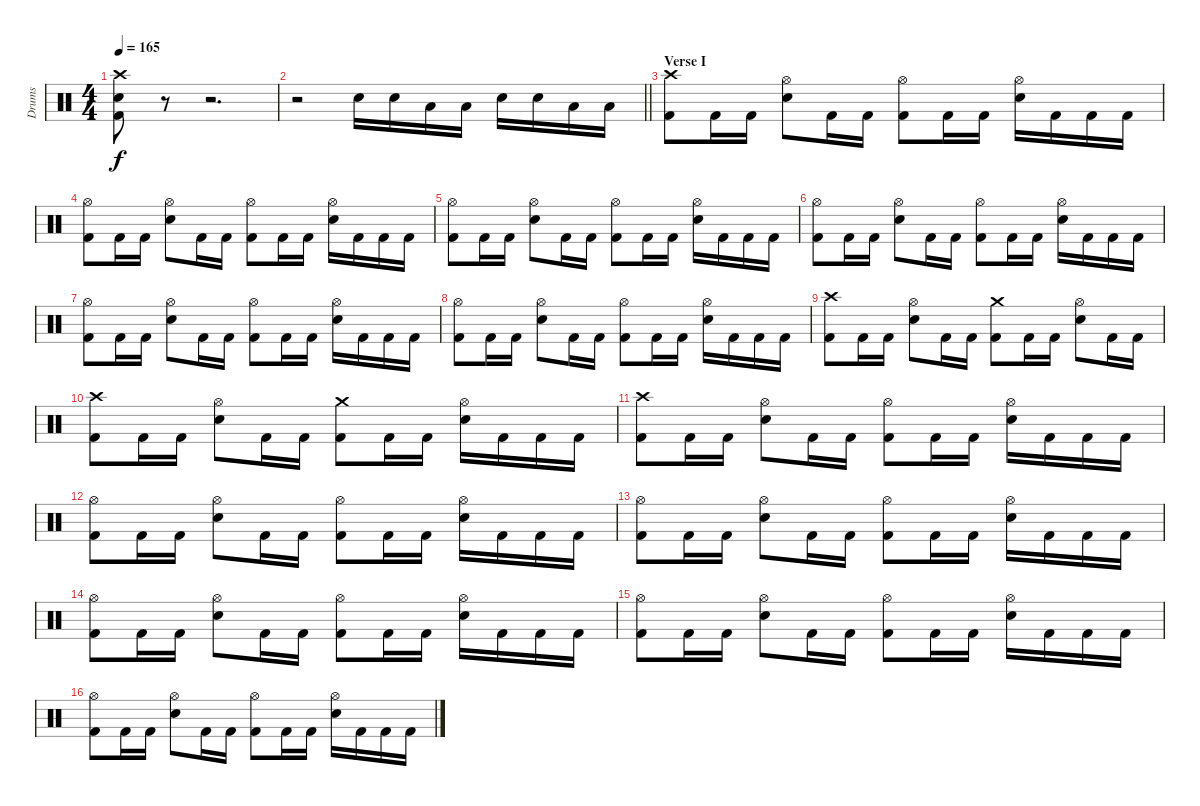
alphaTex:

\track ("Drums" "Drums") {instrument percussion}
\staff {score}
\articulation defaults
\ts (4 4)
\tempo 165
\clef neutral
\ks c
("Crash high (hit)" "Snare (hit) 2" "Kick (hit) 2").8{dy f} r.8 r.2{d} |
\barLineRight lightlight
r.2 "Snare (hit) 2".16 "Snare (hit) 2".16 "Low Tom (hit)".16 "Low Tom (hit)".16 "Snare (hit) 2".16 "Snare (hit) 2".16 "Low Tom (hit)".16 "Low Tom (hit)".16 |
\section ("" "Verse I")
("Crash high (hit)" "Kick (hit) 2").8 "Kick (hit) 2".16 "Kick (hit) 2".16 ("Hi-Hat (open)" "Snare (hit) 2").8 "Kick (hit) 2".16 "Kick (hit) 2".16 ("Hi-Hat (open)" "Kick (hit) 2").8 "Kick (hit) 2".16 "Kick (hit) 2".16 ("Hi-Hat (open)" "Snare (hit) 2").16 "Kick (hit) 2".16 "Kick (hit) 2".16 "Kick (hit) 2".16 |
("Hi-Hat (open)" "Kick (hit) 2").8 "Kick (hit) 2".16 "Kick (hit) 2".16 ("Hi-Hat (open)" "Snare (hit) 2").8 "Kick (hit) 2".16 "Kick (hit) 2".16 ("Hi-Hat (open)" "Kick (hit) 2").8 "Kick (hit) 2".16 "Kick (hit) 2".16 ("Hi-Hat (open)" "Snare (hit) 2").16 "Kick (hit) 2".16 "Kick (hit) 2".16 "Kick (hit) 2".16 |
("Hi-Hat (open)" "Kick (hit) 2").8 "Kick (hit) 2".16 "Kick (hit) 2".16 ("Hi-Hat (open)" "Snare (hit) 2").8 "Kick (hit) 2".16 "Kick (hit) 2".16 ("Hi-Hat (open)" "Kick (hit) 2").8 "Kick (hit) 2".16 "Kick (hit) 2".16 ("Hi-Hat (open)" "Snare (hit) 2").16 "Kick (hit) 2".16 "Kick (hit) 2".16 "Kick (hit) 2".16 |
("Hi-Hat (open)" "Kick (hit) 2").8 "Kick (hit) 2".16 "Kick (hit) 2".16 ("Hi-Hat (open)" "Snare (hit) 2").8 "Kick (hit) 2".16 "Kick (hit) 2".16 ("Hi-Hat (open)" "Kick (hit) 2").8 "Kick (hit) 2".16 "Kick (hit) 2".16 ("Hi-Hat (open)" "Snare (hit) 2").16 "Kick (hit) 2".16 "Kick (hit) 2".16 "Kick (hit) 2".16 |
("Hi-Hat (open)" "Kick (hit) 2").8 "Kick (hit) 2".16 "Kick (hit) 2".16 ("Hi-Hat (open)" "Snare (hit) 2").8 "Kick (hit) 2".16 "Kick (hit) 2".16 ("Hi-Hat (open)" "Kick (hit) 2").8 "Kick (hit) 2".16 "Kick (hit) 2".16 ("Hi-Hat (open)" "Snare (hit) 2").16 "Kick (hit) 2".16 "Kick (hit) 2".16 "Kick (hit) 2".16 |
("Hi-Hat (open)" "Kick (hit) 2").8 "Kick (hit) 2".16 "Kick (hit) 2".16 ("Hi-Hat (open)" "Snare (hit) 2").8 "Kick (hit) 2".16 "Kick (hit) 2".16 ("Hi-Hat (open)" "Kick (hit) 2").8 "Kick (hit) 2".16 "Kick (hit) 2".16 ("Hi-Hat (open)" "Snare (hit) 2").16 "Kick (hit) 2".16 "Kick (hit) 2".16 "Kick (hit) 2".16 |
("Crash high (hit)" "Kick (hit) 2").8 "Kick (hit) 2".16 "Kick (hit) 2".16 ("Hi-Hat (open)" "Snare (hit) 2").8 "Kick (hit) 2".16 "Kick (hit) 2".16 ("Crash medium (hit)" "Kick (hit) 2").8 "Kick (hit) 2".16 "Kick (hit) 2".16 ("Hi-Hat (open)" "Snare (hit) 2").8 "Kick (hit) 2".16 "Kick (hit) 2".16 |
("Crash high (hit)" "Kick (hit) 2").8 "Kick (hit) 2".16 "Kick (hit) 2".16 ("Hi-Hat (open)" "Snare (hit) 2").8 "Kick (hit) 2".16 "Kick (hit) 2".16 ("Crash medium (hit)" "Kick (hit) 2").8 "Kick (hit) 2".16 "Kick (hit) 2".16 ("Hi-Hat (open)" "Snare (hit) 2").16 "Kick (hit) 2".16 "Kick (hit) 2".16 "Kick (hit) 2".16 |
("Crash high (hit)" "Kick (hit) 2").8 "Kick (hit) 2".16 "Kick (hit) 2".16 ("Hi-Hat (open)" "Snare (hit) 2").8 "Kick (hit) 2".16 "Kick (hit) 2".16 ("Hi-Hat (open)" "Kick (hit) 2").8 "Kick (hit) 2".16 "Kick (hit) 2".16 ("Hi-Hat (open)" "Snare (hit) 2").16 "Kick (hit) 2".16 "Kick (hit) 2".16 "Kick (hit) 2".16 |
("Hi-Hat (open)" "Kick (hit) 2").8 "Kick (hit) 2".16 "Kick (hit) 2".16 ("Hi-Hat (open)" "Snare (hit) 2").8 "Kick (hit) 2".16 "Kick (hit) 2".16 ("Hi-Hat (open)" "Kick (hit) 2").8 "Kick (hit) 2".16 "Kick (hit) 2".16 ("Hi-Hat (open)" "Snare (hit) 2").16 "Kick (hit) 2".16 "Kick (hit) 2".16 "Kick (hit) 2".16 |
("Hi-Hat (open)" "Kick (hit) 2").8 "Kick (hit) 2".16 "Kick (hit) 2".16 ("Hi-Hat (open)" "Snare (hit) 2").8 "Kick (hit) 2".16 "Kick (hit) 2".16 ("Hi-Hat (open)" "Kick (hit) 2").8 "Kick (hit) 2".16 "Kick (hit) 2".16 ("Hi-Hat (open)" "Snare (hit) 2").16 "Kick (hit) 2".16 "Kick (hit) 2".16 "Kick (hit) 2".16 |
("Hi-Hat (open)" "Kick (hit) 2").8 "Kick (hit) 2".16 "Kick (hit) 2".16 ("Hi-Hat (open)" "Snare (hit) 2").8 "Kick (hit) 2".16 "Kick (hit) 2".16 ("Hi-Hat (open)" "Kick (hit) 2").8 "Kick (hit) 2".16 "Kick (hit) 2".16 ("Hi-Hat (open)" "Snare (hit) 2").16 "Kick (hit) 2".16 "Kick (hit) 2".16 "Kick (hit) 2".16 |
("Hi-Hat (open)" "Kick (hit) 2").8 "Kick (hit) 2".16 "Kick (hit) 2".16 ("Hi-Hat (open)" "Snare (hit) 2").8 "Kick (hit) 2".16 "Kick (hit) 2".16 ("Hi-Hat (open)" "Kick (hit) 2").8 "Kick (hit) 2".16 "Kick (hit) 2".16 ("Hi-Hat (open)" "Snare (hit) 2").16 "Kick (hit) 2".16 "Kick (hit) 2".16 "Kick (hit) 2".16 |
("Hi-Hat (open)" "Kick (hit) 2").8 "Kick (hit) 2".16 "Kick (hit) 2".16 ("Hi-Hat (open)" "Snare (hit) 2").8 "Kick (hit) 2".16 "Kick (hit) 2".16 ("Hi-Hat (open)" "Kick (hit) 2").8 "Kick (hit) 2".16 "Kick (hit) 2".16 ("Hi-Hat (open)" "Snare (hit) 2").16 "Kick (hit) 2".16 "Kick (hit) 2".16 "Kick (hit) 2".16
